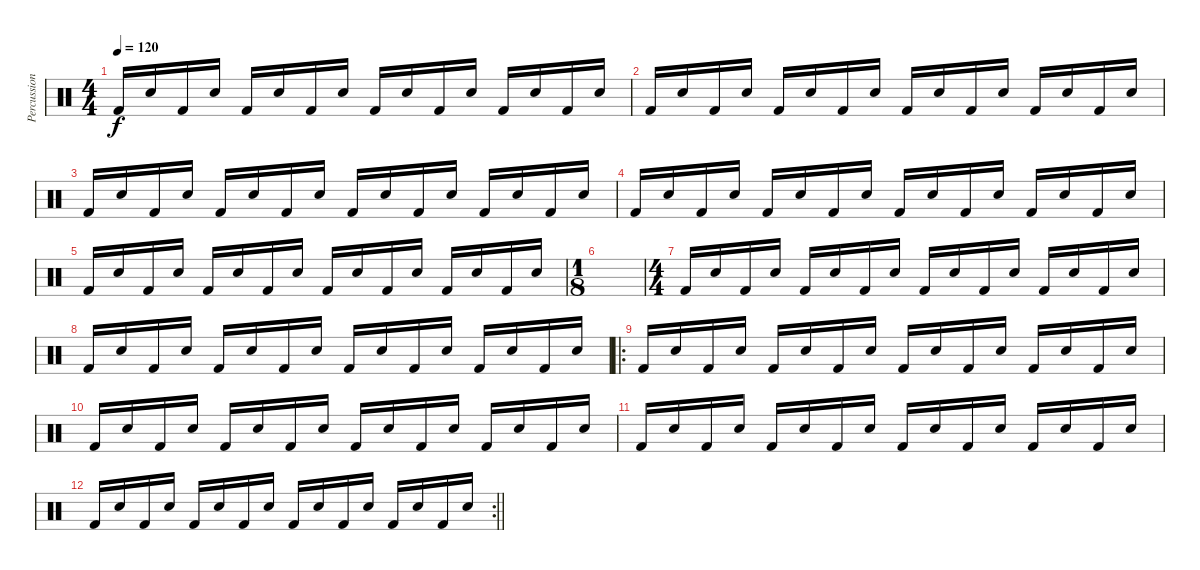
\track ("Percussion" "Percussion") {instrument percussion}
\staff {score}
\articulation defaults
\ts (4 4)
\tempo 120
\clef neutral
\ks c "Kick (hit) 2".16{dy f} "Snare (hit) 2".16 "Kick (hit) 2".16 "Snare (hit) 2".16 "Kick (hit) 2".16 "Snare (hit) 2".16 "Kick (hit) 2".16 "Snare (hit) 2".16 "Kick (hit) 2".16 "Snare (hit) 2".16 "Kick (hit) 2".16 "Snare (hit) 2".16 "Kick (hit) 2".16 "Snare (hit) 2".16 "Kick (hit) 2".16 "Snare (hit) 2".16
|
"Kick (hit) 2".16 "Snare (hit) 2".16 "Kick (hit) 2".16 "Snare (hit) 2".16 "Kick (hit) 2".16 "Snare (hit) 2".16 "Kick (hit) 2".16 "Snare (hit) 2".16 "Kick (hit) 2".16 "Snare (hit) 2".16 "Kick (hit) 2".16 "Snare (hit) 2".16 "Kick (hit) 2".16 "Snare (hit) 2".16 "Kick (hit) 2".16 "Snare (hit) 2".16 |
"Kick (hit) 2".16 "Snare (hit) 2".16 "Kick (hit) 2".16 "Snare (hit) 2".16 "Kick (hit) 2".16 "Snare (hit) 2".16 "Kick (hit) 2".16 "Snare (hit) 2".16 "Kick (hit) 2".16 "Snare (hit) 2".16 "Kick (hit) 2".16 "Snare (hit) 2".16 "Kick (hit) 2".16 "Snare (hit) 2".16 "Kick (hit) 2".16 "Snare (hit) 2".16 |
"Kick (hit) 2".16 "Snare (hit) 2".16 "Kick (hit) 2".16 "Snare (hit) 2".16 "Kick (hit) 2".16 "Snare (hit) 2".16 "Kick (hit) 2".16 "Snare (hit) 2".16 "Kick (hit) 2".16 "Snare (hit) 2".16 "Kick (hit) 2".16 "Snare (hit) 2".16 "Kick (hit) 2".16 "Snare (hit) 2".16 "Kick (hit) 2".16 "Snare (hit) 2".16 |
"Kick (hit) 2".16 "Snare (hit) 2".16 "Kick (hit) 2".16 "Snare (hit) 2".16 "Kick (hit) 2".16 "Snare (hit) 2".16 "Kick (hit) 2".16 "Snare (hit) 2".16 "Kick (hit) 2".16 "Snare (hit) 2".16 "Kick (hit) 2".16 "Snare (hit) 2".16 "Kick (hit) 2".16 "Snare (hit) 2".16 "Kick (hit) 2".16 "Snare (hit) 2".16 |
\ts (1 8)
|
\ts (4 4)
"Kick (hit) 2".16 "Snare (hit) 2".16 "Kick (hit) 2".16 "Snare (hit) 2".16 "Kick (hit) 2".16 "Snare (hit) 2".16 "Kick (hit) 2".16 "Snare (hit) 2".16 "Kick (hit) 2".16 "Snare (hit) 2".16 "Kick (hit) 2".16 "Snare (hit) 2".16 "Kick (hit) 2".16 "Snare (hit) 2".16 "Kick (hit) 2".16 "Snare (hit) 2".16 |
"Kick (hit) 2".16 "Snare (hit) 2".16 "Kick (hit) 2".16 "Snare (hit) 2".16 "Kick (hit) 2".16 "Snare (hit) 2".16 "Kick (hit) 2".16 "Snare (hit) 2".16 "Kick (hit) 2".16 "Snare (hit) 2".16 "Kick (hit) 2".16 "Snare (hit) 2".16 "Kick (hit) 2".16 "Snare (hit) 2".16 "Kick (hit) 2".16 "Snare (hit) 2".16 |
\ro "Kick (hit) 2".16 "Snare (hit) 2".16 "Kick (hit) 2".16 "Snare (hit) 2".16 "Kick (hit) 2".16 "Snare (hit) 2".16 "Kick (hit) 2".16 "Snare (hit) 2".16 "Kick (hit) 2".16 "Snare (hit) 2".16 "Kick (hit) 2".16 "Snare (hit) 2".16 "Kick (hit) 2".16 "Snare (hit) 2".16 "Kick (hit) 2".16 "Snare (hit) 2".16
|
"Kick (hit) 2".16 "Snare (hit) 2".16 "Kick (hit) 2".16 "Snare (hit) 2".16 "Kick (hit) 2".16 "Snare (hit) 2".16 "Kick (hit) 2".16 "Snare (hit) 2".16 "Kick (hit) 2".16 "Snare (hit) 2".16 "Kick (hit) 2".16 "Snare (hit) 2".16 "Kick (hit) 2".16 "Snare (hit) 2".16 "Kick (hit) 2".16 "Snare (hit) 2".16 |
"Kick (hit) 2".16 "Snare (hit) 2".16 "Kick (hit) 2".16 "Snare (hit) 2".16 "Kick (hit) 2".16 "Snare (hit) 2".16 "Kick (hit) 2".16 "Snare (hit) 2".16 "Kick (hit) 2".16 "Snare (hit) 2".16 "Kick (hit) 2".16 "Snare (hit) 2".16 "Kick (hit) 2".16 "Snare (hit) 2".16 "Kick (hit) 2".16 "Snare (hit) 2".16 |
\rc 2
\barLineRight lightlight "Kick (hit) 2".16 "Snare (hit) 2".16 "Kick (hit) 2".16 "Snare (hit) 2".16 "Kick (hit) 2".16 "Snare (hit) 2".16 "Kick (hit) 2".16 "Snare (hit) 2".16 "Kick (hit) 2".16 "Snare (hit) 2".16 "Kick (hit) 2".16 "Snare (hit) 2".16 "Kick (hit) 2".16 "Snare (hit) 2".16 "Kick (hit) 2".16 "Snare (hit) 2".16
